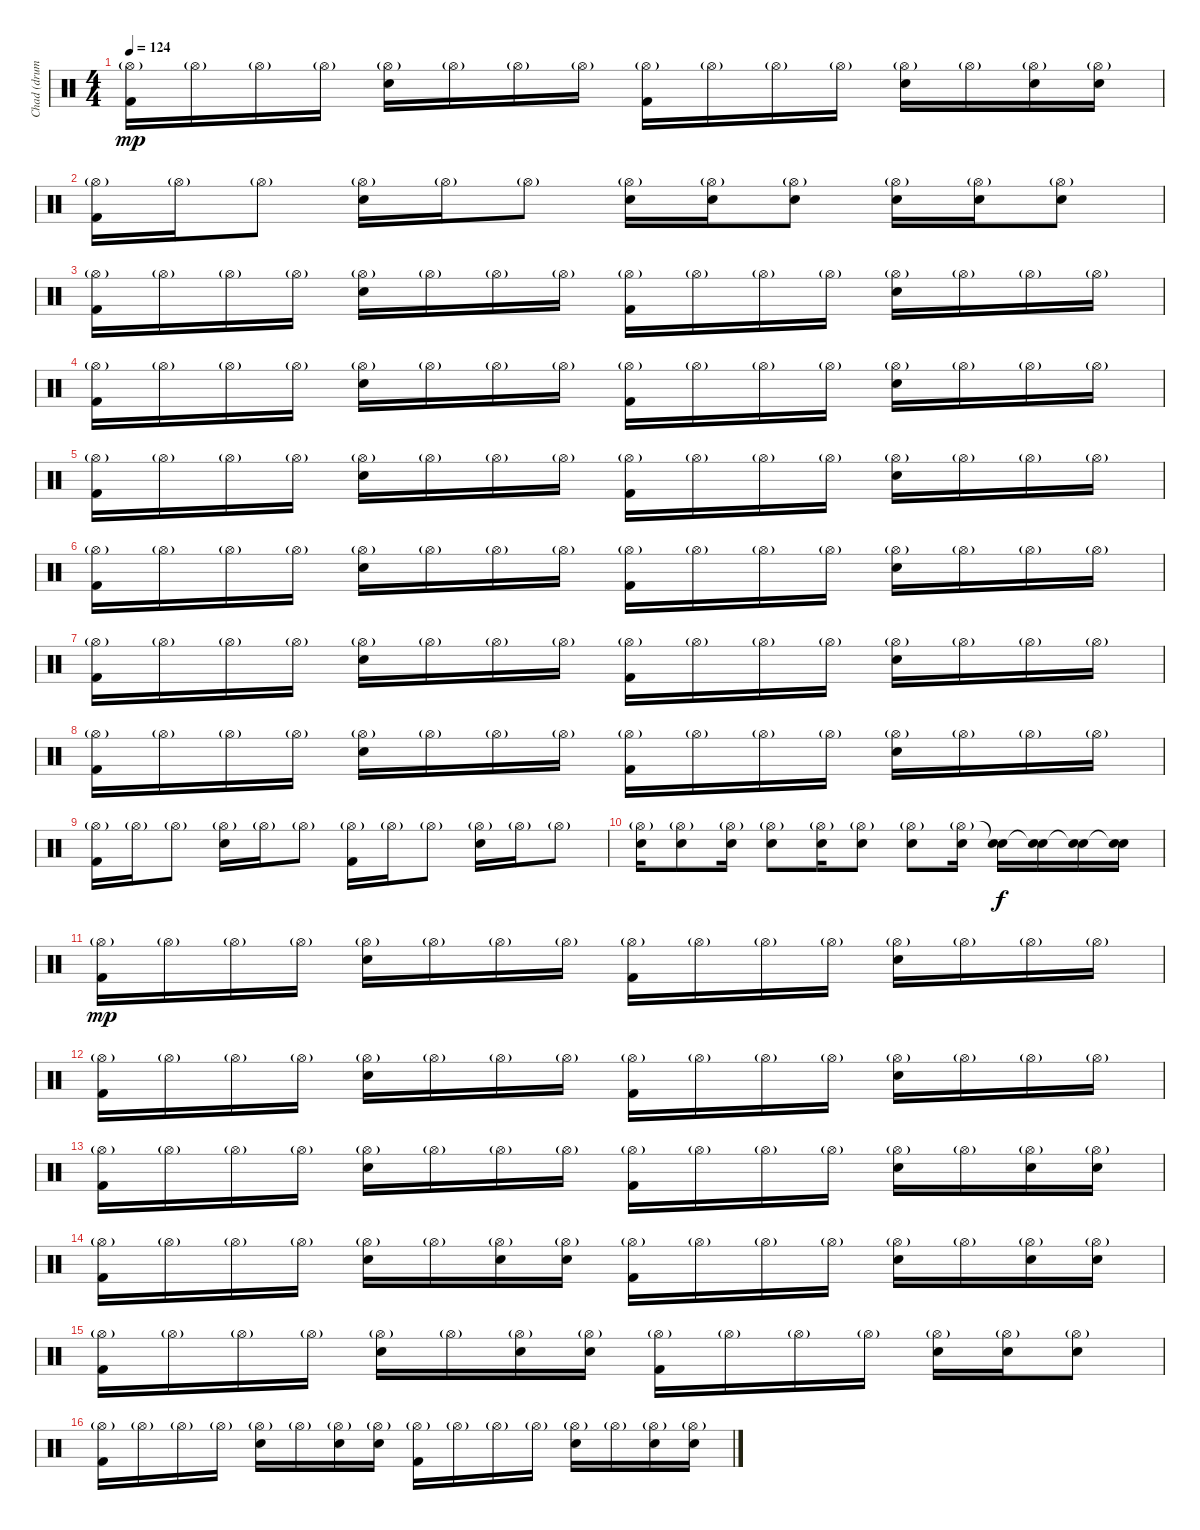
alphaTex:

\track ("Chad (drums)" "Chad (drum") {instrument percussion}
\staff {score}
\articulation defaults
\ts (4 4)
\tempo 124
\clef neutral
\ks c
("Kick (hit) 2" "Hi-Hat (open)"{g}).16{dy mp} "Hi-Hat (open)"{g}.16 "Hi-Hat (open)"{g}.16 "Hi-Hat (open)"{g}.16 ("Electric Snare (hit)" "Hi-Hat (open)"{g}).16 "Hi-Hat (open)"{g}.16 "Hi-Hat (open)"{g}.16 "Hi-Hat (open)"{g}.16 ("Kick (hit) 2" "Hi-Hat (open)"{g}).16 "Hi-Hat (open)"{g}.16 "Hi-Hat (open)"{g}.16 "Hi-Hat (open)"{g}.16 ("Electric Snare (hit)" "Hi-Hat (open)"{g}).16 "Hi-Hat (open)"{g}.16 ("Electric Snare (hit)" "Hi-Hat (open)"{g}).16 ("Electric Snare (hit)" "Hi-Hat (open)"{g}).16 |
("Kick (hit) 2" "Hi-Hat (open)"{g}).16 "Hi-Hat (open)"{g}.16 "Hi-Hat (open)"{g}.8 ("Electric Snare (hit)" "Hi-Hat (open)"{g}).16 "Hi-Hat (open)"{g}.16 "Hi-Hat (open)"{g}.8 ("Electric Snare (hit)" "Hi-Hat (open)"{g}).16 ("Electric Snare (hit)" "Hi-Hat (open)"{g}).16 ("Electric Snare (hit)" "Hi-Hat (open)"{g}).8 ("Electric Snare (hit)" "Hi-Hat (open)"{g}).16 ("Electric Snare (hit)" "Hi-Hat (open)"{g}).16 ("Electric Snare (hit)" "Hi-Hat (open)"{g}).8 |
("Kick (hit) 2" "Hi-Hat (open)"{g}).16 "Hi-Hat (open)"{g}.16 "Hi-Hat (open)"{g}.16 "Hi-Hat (open)"{g}.16 ("Electric Snare (hit)" "Hi-Hat (open)"{g}).16 "Hi-Hat (open)"{g}.16 "Hi-Hat (open)"{g}.16 "Hi-Hat (open)"{g}.16 ("Kick (hit) 2" "Hi-Hat (open)"{g}).16 "Hi-Hat (open)"{g}.16 "Hi-Hat (open)"{g}.16 "Hi-Hat (open)"{g}.16 ("Electric Snare (hit)" "Hi-Hat (open)"{g}).16 "Hi-Hat (open)"{g}.16 "Hi-Hat (open)"{g}.16 "Hi-Hat (open)"{g}.16 |
("Kick (hit) 2" "Hi-Hat (open)"{g}).16 "Hi-Hat (open)"{g}.16 "Hi-Hat (open)"{g}.16 "Hi-Hat (open)"{g}.16 ("Electric Snare (hit)" "Hi-Hat (open)"{g}).16 "Hi-Hat (open)"{g}.16 "Hi-Hat (open)"{g}.16 "Hi-Hat (open)"{g}.16 ("Kick (hit) 2" "Hi-Hat (open)"{g}).16 "Hi-Hat (open)"{g}.16 "Hi-Hat (open)"{g}.16 "Hi-Hat (open)"{g}.16 ("Electric Snare (hit)" "Hi-Hat (open)"{g}).16 "Hi-Hat (open)"{g}.16 "Hi-Hat (open)"{g}.16 "Hi-Hat (open)"{g}.16 |
("Kick (hit) 2" "Hi-Hat (open)"{g}).16 "Hi-Hat (open)"{g}.16 "Hi-Hat (open)"{g}.16 "Hi-Hat (open)"{g}.16 ("Electric Snare (hit)" "Hi-Hat (open)"{g}).16 "Hi-Hat (open)"{g}.16 "Hi-Hat (open)"{g}.16 "Hi-Hat (open)"{g}.16 ("Kick (hit) 2" "Hi-Hat (open)"{g}).16 "Hi-Hat (open)"{g}.16 "Hi-Hat (open)"{g}.16 "Hi-Hat (open)"{g}.16 ("Electric Snare (hit)" "Hi-Hat (open)"{g}).16 "Hi-Hat (open)"{g}.16 "Hi-Hat (open)"{g}.16 "Hi-Hat (open)"{g}.16 |
("Kick (hit) 2" "Hi-Hat (open)"{g}).16 "Hi-Hat (open)"{g}.16 "Hi-Hat (open)"{g}.16 "Hi-Hat (open)"{g}.16 ("Electric Snare (hit)" "Hi-Hat (open)"{g}).16 "Hi-Hat (open)"{g}.16 "Hi-Hat (open)"{g}.16 "Hi-Hat (open)"{g}.16 ("Kick (hit) 2" "Hi-Hat (open)"{g}).16 "Hi-Hat (open)"{g}.16 "Hi-Hat (open)"{g}.16 "Hi-Hat (open)"{g}.16 ("Electric Snare (hit)" "Hi-Hat (open)"{g}).16 "Hi-Hat (open)"{g}.16 "Hi-Hat (open)"{g}.16 "Hi-Hat (open)"{g}.16 |
("Kick (hit) 2" "Hi-Hat (open)"{g}).16 "Hi-Hat (open)"{g}.16 "Hi-Hat (open)"{g}.16 "Hi-Hat (open)"{g}.16 ("Electric Snare (hit)" "Hi-Hat (open)"{g}).16 "Hi-Hat (open)"{g}.16 "Hi-Hat (open)"{g}.16 "Hi-Hat (open)"{g}.16 ("Kick (hit) 2" "Hi-Hat (open)"{g}).16 "Hi-Hat (open)"{g}.16 "Hi-Hat (open)"{g}.16 "Hi-Hat (open)"{g}.16 ("Electric Snare (hit)" "Hi-Hat (open)"{g}).16 "Hi-Hat (open)"{g}.16 "Hi-Hat (open)"{g}.16 "Hi-Hat (open)"{g}.16 |
("Kick (hit) 2" "Hi-Hat (open)"{g}).16 "Hi-Hat (open)"{g}.16 "Hi-Hat (open)"{g}.16 "Hi-Hat (open)"{g}.16 ("Electric Snare (hit)" "Hi-Hat (open)"{g}).16 "Hi-Hat (open)"{g}.16 "Hi-Hat (open)"{g}.16 "Hi-Hat (open)"{g}.16 ("Kick (hit) 2" "Hi-Hat (open)"{g}).16 "Hi-Hat (open)"{g}.16 "Hi-Hat (open)"{g}.16 "Hi-Hat (open)"{g}.16 ("Electric Snare (hit)" "Hi-Hat (open)"{g}).16 "Hi-Hat (open)"{g}.16 "Hi-Hat (open)"{g}.16 "Hi-Hat (open)"{g}.16 |
("Kick (hit) 2" "Hi-Hat (open)"{g}).16 "Hi-Hat (open)"{g}.16 "Hi-Hat (open)"{g}.8 ("Electric Snare (hit)" "Hi-Hat (open)"{g}).16 "Hi-Hat (open)"{g}.16 "Hi-Hat (open)"{g}.8 ("Kick (hit) 2" "Hi-Hat (open)"{g}).16 "Hi-Hat (open)"{g}.16 "Hi-Hat (open)"{g}.8 ("Electric Snare (hit)" "Hi-Hat (open)"{g}).16 "Hi-Hat (open)"{g}.16 "Hi-Hat (open)"{g}.8 |
("Electric Snare (hit)" "Hi-Hat (open)"{g}).16 ("Electric Snare (hit)" "Hi-Hat (open)"{g}).8 ("Electric Snare (hit)" "Hi-Hat (open)"{g}).16 ("Electric Snare (hit)" "Hi-Hat (open)"{g}).8 ("Electric Snare (hit)" "Hi-Hat (open)"{g}).16 ("Electric Snare (hit)" "Hi-Hat (open)"{g}).8 ("Electric Snare (hit)" "Hi-Hat (open)"{g}).8 ("Electric Snare (hit)" "Hi-Hat (open)"{g}).16 ("Electric Snare (hit)" "Snare (hit)"{t}).16{dy f} ("Electric Snare (hit)" "Snare (hit)"{t}).16 ("Electric Snare (hit)" "Snare (hit)"{t}).16 ("Electric Snare (hit)" "Snare (hit)"{t}).16 |
("Kick (hit) 2" "Hi-Hat (open)"{g}).16{dy mp} "Hi-Hat (open)"{g}.16 "Hi-Hat (open)"{g}.16 "Hi-Hat (open)"{g}.16 ("Electric Snare (hit)" "Hi-Hat (open)"{g}).16 "Hi-Hat (open)"{g}.16 "Hi-Hat (open)"{g}.16 "Hi-Hat (open)"{g}.16 ("Kick (hit) 2" "Hi-Hat (open)"{g}).16 "Hi-Hat (open)"{g}.16 "Hi-Hat (open)"{g}.16 "Hi-Hat (open)"{g}.16 ("Electric Snare (hit)" "Hi-Hat (open)"{g}).16 "Hi-Hat (open)"{g}.16 "Hi-Hat (open)"{g}.16 "Hi-Hat (open)"{g}.16 |
("Kick (hit) 2" "Hi-Hat (open)"{g}).16 "Hi-Hat (open)"{g}.16 "Hi-Hat (open)"{g}.16 "Hi-Hat (open)"{g}.16 ("Electric Snare (hit)" "Hi-Hat (open)"{g}).16 "Hi-Hat (open)"{g}.16 "Hi-Hat (open)"{g}.16 "Hi-Hat (open)"{g}.16 ("Kick (hit) 2" "Hi-Hat (open)"{g}).16 "Hi-Hat (open)"{g}.16 "Hi-Hat (open)"{g}.16 "Hi-Hat (open)"{g}.16 ("Electric Snare (hit)" "Hi-Hat (open)"{g}).16 "Hi-Hat (open)"{g}.16 "Hi-Hat (open)"{g}.16 "Hi-Hat (open)"{g}.16 |
("Kick (hit) 2" "Hi-Hat (open)"{g}).16 "Hi-Hat (open)"{g}.16 "Hi-Hat (open)"{g}.16 "Hi-Hat (open)"{g}.16 ("Electric Snare (hit)" "Hi-Hat (open)"{g}).16 "Hi-Hat (open)"{g}.16 "Hi-Hat (open)"{g}.16 "Hi-Hat (open)"{g}.16 ("Kick (hit) 2" "Hi-Hat (open)"{g}).16 "Hi-Hat (open)"{g}.16 "Hi-Hat (open)"{g}.16 "Hi-Hat (open)"{g}.16 ("Electric Snare (hit)" "Hi-Hat (open)"{g}).16 "Hi-Hat (open)"{g}.16 ("Electric Snare (hit)" "Hi-Hat (open)"{g}).16 ("Electric Snare (hit)" "Hi-Hat (open)"{g}).16 |
("Kick (hit) 2" "Hi-Hat (open)"{g}).16 "Hi-Hat (open)"{g}.16 "Hi-Hat (open)"{g}.16 "Hi-Hat (open)"{g}.16 ("Electric Snare (hit)" "Hi-Hat (open)"{g}).16 "Hi-Hat (open)"{g}.16 ("Electric Snare (hit)" "Hi-Hat (open)"{g}).16 ("Electric Snare (hit)" "Hi-Hat (open)"{g}).16 ("Kick (hit) 2" "Hi-Hat (open)"{g}).16 "Hi-Hat (open)"{g}.16 "Hi-Hat (open)"{g}.16 "Hi-Hat (open)"{g}.16 ("Electric Snare (hit)" "Hi-Hat (open)"{g}).16 "Hi-Hat (open)"{g}.16 ("Electric Snare (hit)" "Hi-Hat (open)"{g}).16 ("Electric Snare (hit)" "Hi-Hat (open)"{g}).16 |
("Kick (hit) 2" "Hi-Hat (open)"{g}).16 "Hi-Hat (open)"{g}.16 "Hi-Hat (open)"{g}.16 "Hi-Hat (open)"{g}.16 ("Electric Snare (hit)" "Hi-Hat (open)"{g}).16 "Hi-Hat (open)"{g}.16 ("Electric Snare (hit)" "Hi-Hat (open)"{g}).16 ("Electric Snare (hit)" "Hi-Hat (open)"{g}).16 ("Kick (hit) 2" "Hi-Hat (open)"{g}).16 "Hi-Hat (open)"{g}.16 "Hi-Hat (open)"{g}.16 "Hi-Hat (open)"{g}.16 ("Electric Snare (hit)" "Hi-Hat (open)"{g}).16 ("Electric Snare (hit)" "Hi-Hat (open)"{g}).16 ("Electric Snare (hit)" "Hi-Hat (open)"{g}).8 |
("Kick (hit) 2" "Hi-Hat (open)"{g}).16 "Hi-Hat (open)"{g}.16 "Hi-Hat (open)"{g}.16 "Hi-Hat (open)"{g}.16 ("Electric Snare (hit)" "Hi-Hat (open)"{g}).16 "Hi-Hat (open)"{g}.16 ("Electric Snare (hit)" "Hi-Hat (open)"{g}).16 ("Electric Snare (hit)" "Hi-Hat (open)"{g}).16 ("Kick (hit) 2" "Hi-Hat (open)"{g}).16 "Hi-Hat (open)"{g}.16 "Hi-Hat (open)"{g}.16 "Hi-Hat (open)"{g}.16 ("Electric Snare (hit)" "Hi-Hat (open)"{g}).16 "Hi-Hat (open)"{g}.16 ("Electric Snare (hit)" "Hi-Hat (open)"{g}).16 ("Electric Snare (hit)" "Hi-Hat (open)"{g}).16
